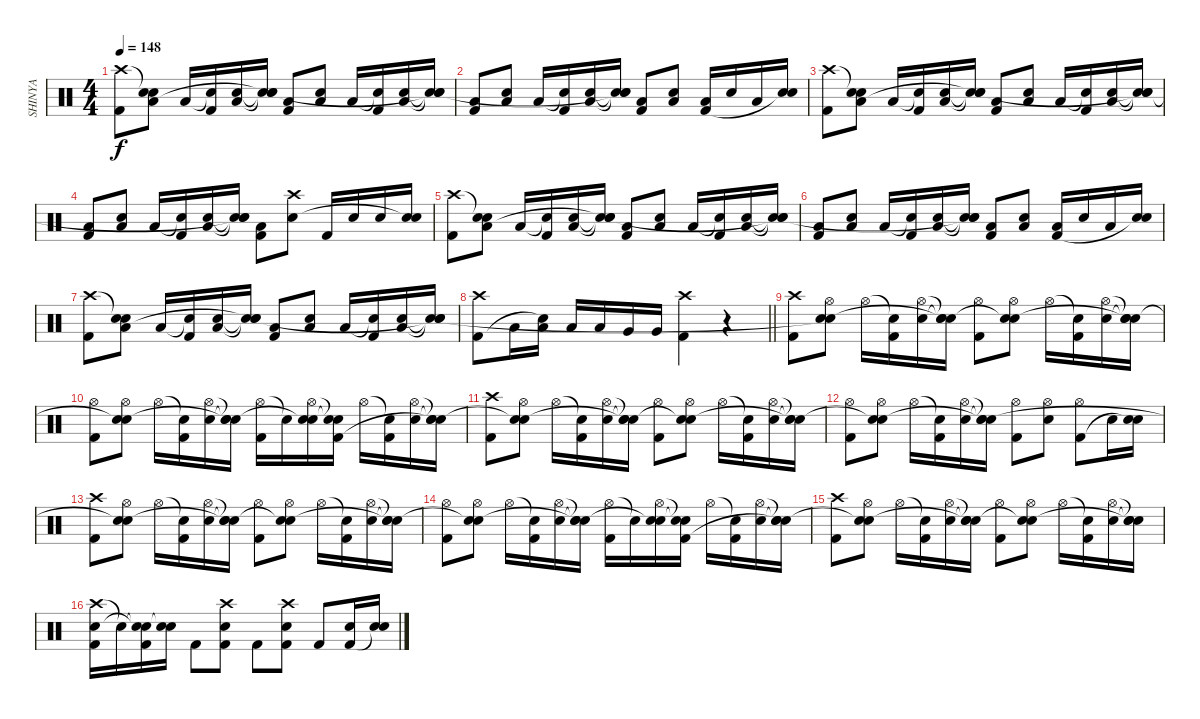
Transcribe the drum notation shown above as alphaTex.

\track ("SHINYA" "SHINYA") {instrument percussion}
\staff {score}
\articulation defaults
\ts (4 4)
\tempo 148
\clef neutral
\ks c
("Crash high (hit)" "Kick (hit) 2").8{dy f} ("Electric Snare (hit)"{t} "Electric Snare (hit)" "Low Floor Tom (hit)").8 "Low Floor Tom (hit)".16 ("Snare (hit)"{t} "Kick (hit) 2").16 ("Electric Snare (hit)" "Low Floor Tom (hit)").16 ("Snare (hit)"{t} "Snare (hit)"{t} "Snare (hit)"{t}).16 ("Low Floor Tom (hit)" "Kick (hit) 2").8 ("Electric Snare (hit)" "Low Floor Tom (hit)").8 "Low Floor Tom (hit)".16 ("Snare (hit)"{t} "Kick (hit) 2").16 ("Electric Snare (hit)" "Low Floor Tom (hit)").16 ("Snare (hit)"{t} "Snare (hit)"{t} "Snare (hit)"{t}).16 |
("Low Floor Tom (hit)" "Kick (hit) 2").8 ("Electric Snare (hit)" "Low Floor Tom (hit)").8 "Low Floor Tom (hit)".16 ("Snare (hit)"{t} "Kick (hit) 2").16 ("Electric Snare (hit)" "Low Floor Tom (hit)").16 ("Snare (hit)"{t} "Snare (hit)"{t} "Snare (hit)"{t}).16 ("Low Floor Tom (hit)" "Kick (hit) 2").8 ("Electric Snare (hit)" "Low Floor Tom (hit)").8 ("Low Floor Tom (hit)" "Kick (hit) 2").16 "Electric Snare (hit)".16 "Low Floor Tom (hit)".16 ("Electric Snare (hit)" "Snare (hit)"{t}).16 |
("Crash high (hit)" "Kick (hit) 2").8 ("Electric Snare (hit)"{t} "Electric Snare (hit)" "Low Floor Tom (hit)").8 "Low Floor Tom (hit)".16 ("Snare (hit)"{t} "Kick (hit) 2").16 ("Electric Snare (hit)" "Low Floor Tom (hit)").16 ("Snare (hit)"{t} "Snare (hit)"{t} "Snare (hit)"{t}).16 ("Low Floor Tom (hit)" "Kick (hit) 2").8 ("Electric Snare (hit)" "Low Floor Tom (hit)").8 "Low Floor Tom (hit)".16 ("Snare (hit)"{t} "Kick (hit) 2").16 ("Electric Snare (hit)" "Low Floor Tom (hit)").16 ("Snare (hit)"{t} "Snare (hit)"{t} "Snare (hit)"{t}).16 |
("Low Floor Tom (hit)" "Kick (hit) 2").8 ("Electric Snare (hit)" "Low Floor Tom (hit)").8 "Low Floor Tom (hit)".16 ("Snare (hit)"{t} "Kick (hit) 2").16 ("Electric Snare (hit)" "Low Floor Tom (hit)").16 ("Snare (hit)"{t} "Snare (hit)"{t} "Snare (hit)"{t}).16 ("Low Floor Tom (hit)" "Kick (hit) 2").8 ("Crash high (hit)" "Electric Snare (hit)").8 "Kick (hit) 2".16 "Electric Snare (hit)".16 "Electric Snare (hit)".16 ("Electric Snare (hit)" "Snare (hit)"{t}).16 |
("Crash high (hit)" "Kick (hit) 2").8 ("Electric Snare (hit)"{t} "Electric Snare (hit)" "Low Floor Tom (hit)").8 "Low Floor Tom (hit)".16 ("Snare (hit)"{t} "Kick (hit) 2").16 ("Electric Snare (hit)" "Low Floor Tom (hit)").16 ("Snare (hit)"{t} "Snare (hit)"{t} "Snare (hit)"{t}).16 ("Low Floor Tom (hit)" "Kick (hit) 2").8 ("Electric Snare (hit)" "Low Floor Tom (hit)").8 "Low Floor Tom (hit)".16 ("Snare (hit)"{t} "Kick (hit) 2").16 ("Electric Snare (hit)" "Low Floor Tom (hit)").16 ("Snare (hit)"{t} "Snare (hit)"{t} "Snare (hit)"{t}).16 |
("Low Floor Tom (hit)" "Kick (hit) 2").8 ("Electric Snare (hit)" "Low Floor Tom (hit)").8 "Low Floor Tom (hit)".16 ("Snare (hit)"{t} "Kick (hit) 2").16 ("Electric Snare (hit)" "Low Floor Tom (hit)").16 ("Snare (hit)"{t} "Snare (hit)"{t} "Snare (hit)"{t}).16 ("Low Floor Tom (hit)" "Kick (hit) 2").8 ("Electric Snare (hit)" "Low Floor Tom (hit)").8 ("Low Floor Tom (hit)" "Kick (hit) 2").16 "Electric Snare (hit)".16 "Low Floor Tom (hit)".16 ("Electric Snare (hit)" "Snare (hit)"{t}).16 |
("Crash high (hit)" "Kick (hit) 2").8 ("Electric Snare (hit)"{t} "Electric Snare (hit)" "Low Floor Tom (hit)").8 "Low Floor Tom (hit)".16 ("Snare (hit)"{t} "Kick (hit) 2").16 ("Electric Snare (hit)" "Low Floor Tom (hit)").16 ("Snare (hit)"{t} "Snare (hit)"{t} "Snare (hit)"{t}).16 ("Low Floor Tom (hit)" "Kick (hit) 2").8 ("Electric Snare (hit)" "Low Floor Tom (hit)").8 "Low Floor Tom (hit)".16 ("Snare (hit)"{t} "Kick (hit) 2").16 ("Electric Snare (hit)" "Low Floor Tom (hit)").16 ("Snare (hit)"{t} "Snare (hit)"{t} "Snare (hit)"{t}).16 |
\barLineRight lightlight
("Crash high (hit)" "Kick (hit) 2").8 "Low Tom (hit)".16 ("Low Tom (hit)" "Snare (hit)"{t}).16 "Low Tom (hit)".16 "Low Tom (hit)".16 "Very Low Tom (hit)".16 "Very Low Tom (hit)".16 ("Crash high (hit)" "Kick (hit) 2").4 r.4 |
("Crash high (hit)" "Kick (hit) 2").8 ("Hi-Hat (open)" "Electric Snare (hit)" "Snare (hit)"{t}).8 "Hi-Hat (open)".16 ("Snare (hit)"{t} "Kick (hit) 2").16 ("Hi-Hat (open)" "Electric Snare (hit)").16 ("Snare (hit)"{t} "Electric Snare (hit)"{t} "Snare (hit)"{t}).16 ("Hi-Hat (open)" "Kick (hit) 2").8 ("Hi-Hat (open)" "Electric Snare (hit)" "Snare (hit)"{t}).8 "Hi-Hat (open)".16 ("Snare (hit)"{t} "Kick (hit) 2").16 ("Hi-Hat (open)" "Electric Snare (hit)").16 ("Snare (hit)"{t} "Electric Snare (hit)"{t} "Snare (hit)"{t}).16 |
("Hi-Hat (open)" "Kick (hit) 2").8 ("Hi-Hat (open)" "Electric Snare (hit)" "Snare (hit)"{t}).8 "Hi-Hat (open)".16 ("Snare (hit)"{t} "Kick (hit) 2").16 ("Hi-Hat (open)" "Electric Snare (hit)").16 ("Snare (hit)"{t} "Electric Snare (hit)"{t} "Snare (hit)"{t}).16 ("Hi-Hat (open)" "Kick (hit) 2").16 "Snare (hit)"{t}.16 ("Hi-Hat (open)" "Electric Snare (hit)" "Snare (hit)"{t}).16 ("Snare (hit)"{t} "Snare (hit)"{t} "Kick (hit) 2").16 "Hi-Hat (open)".16 ("Snare (hit)"{t} "Kick (hit) 2").16 ("Hi-Hat (open)" "Electric Snare (hit)").16 ("Snare (hit)"{t} "Electric Snare (hit)"{t} "Snare (hit)"{t}).16 |
("Crash high (hit)" "Kick (hit) 2").8 ("Hi-Hat (open)" "Electric Snare (hit)" "Snare (hit)"{t}).8 "Hi-Hat (open)".16 ("Snare (hit)"{t} "Kick (hit) 2").16 ("Hi-Hat (open)" "Electric Snare (hit)").16 ("Snare (hit)"{t} "Electric Snare (hit)"{t} "Snare (hit)"{t}).16 ("Hi-Hat (open)" "Kick (hit) 2").8 ("Hi-Hat (open)" "Electric Snare (hit)" "Snare (hit)"{t}).8 "Hi-Hat (open)".16 ("Snare (hit)"{t} "Kick (hit) 2").16 ("Hi-Hat (open)" "Electric Snare (hit)").16 ("Snare (hit)"{t} "Electric Snare (hit)"{t} "Snare (hit)"{t}).16 |
("Hi-Hat (open)" "Kick (hit) 2").8 ("Hi-Hat (open)" "Electric Snare (hit)" "Snare (hit)"{t}).8 "Hi-Hat (open)".16 ("Snare (hit)"{t} "Kick (hit) 2").16 ("Hi-Hat (open)" "Electric Snare (hit)").16 ("Snare (hit)"{t} "Electric Snare (hit)"{t} "Snare (hit)"{t}).16 ("Hi-Hat (open)" "Kick (hit) 2").8 ("Hi-Hat (open)" "Electric Snare (hit)").8 ("Hi-Hat (open)" "Kick (hit) 2").8 "Electric Snare (hit)".16 ("Electric Snare (hit)" "Snare (hit)"{t}).16 |
("Crash high (hit)" "Kick (hit) 2").8 ("Hi-Hat (open)" "Electric Snare (hit)" "Snare (hit)"{t}).8 "Hi-Hat (open)".16 ("Snare (hit)"{t} "Kick (hit) 2").16 ("Hi-Hat (open)" "Electric Snare (hit)").16 ("Snare (hit)"{t} "Electric Snare (hit)"{t} "Snare (hit)"{t}).16 ("Hi-Hat (open)" "Kick (hit) 2").8 ("Hi-Hat (open)" "Electric Snare (hit)" "Snare (hit)"{t}).8 "Hi-Hat (open)".16 ("Snare (hit)"{t} "Kick (hit) 2").16 ("Hi-Hat (open)" "Electric Snare (hit)").16 ("Snare (hit)"{t} "Electric Snare (hit)"{t} "Snare (hit)"{t}).16 |
("Hi-Hat (open)" "Kick (hit) 2").8 ("Hi-Hat (open)" "Electric Snare (hit)" "Snare (hit)"{t}).8 "Hi-Hat (open)".16 ("Snare (hit)"{t} "Kick (hit) 2").16 ("Hi-Hat (open)" "Electric Snare (hit)").16 ("Snare (hit)"{t} "Electric Snare (hit)"{t} "Snare (hit)"{t}).16 ("Hi-Hat (open)" "Kick (hit) 2").16 "Snare (hit)"{t}.16 ("Hi-Hat (open)" "Electric Snare (hit)" "Snare (hit)"{t}).16 ("Snare (hit)"{t} "Snare (hit)"{t} "Kick (hit) 2").16 "Hi-Hat (open)".16 ("Snare (hit)"{t} "Kick (hit) 2").16 ("Hi-Hat (open)" "Electric Snare (hit)").16 ("Snare (hit)"{t} "Electric Snare (hit)"{t} "Snare (hit)"{t}).16 |
("Crash high (hit)" "Kick (hit) 2").8 ("Hi-Hat (open)" "Electric Snare (hit)" "Snare (hit)"{t}).8 "Hi-Hat (open)".16 ("Snare (hit)"{t} "Kick (hit) 2").16 ("Hi-Hat (open)" "Electric Snare (hit)").16 ("Snare (hit)"{t} "Electric Snare (hit)"{t} "Snare (hit)"{t}).16 ("Hi-Hat (open)" "Kick (hit) 2").8 ("Hi-Hat (open)" "Electric Snare (hit)" "Snare (hit)"{t}).8 "Hi-Hat (open)".16 ("Snare (hit)"{t} "Kick (hit) 2").16 ("Hi-Hat (open)" "Electric Snare (hit)").16 ("Snare (hit)"{t} "Electric Snare (hit)"{t} "Snare (hit)"{t}).16 |
("Crash high (hit)" "Electric Snare (hit)" "Kick (hit) 2").16 "Snare (hit)"{t}.16 ("Snare (hit)"{t} "Snare (hit)"{t} "Kick (hit) 2").16 ("Electric Snare (hit)" "Snare (hit)"{t}).16 "Kick (hit) 2".8 ("Crash high (hit)" "Electric Snare (hit)" "Kick (hit) 2").8 "Kick (hit) 2".8 ("Crash high (hit)" "Electric Snare (hit)" "Kick (hit) 2").8 "Kick (hit) 2".8 ("Electric Snare (hit)" "Kick (hit) 2").16 ("Electric Snare (hit)" "Snare (hit)"{t}).16
